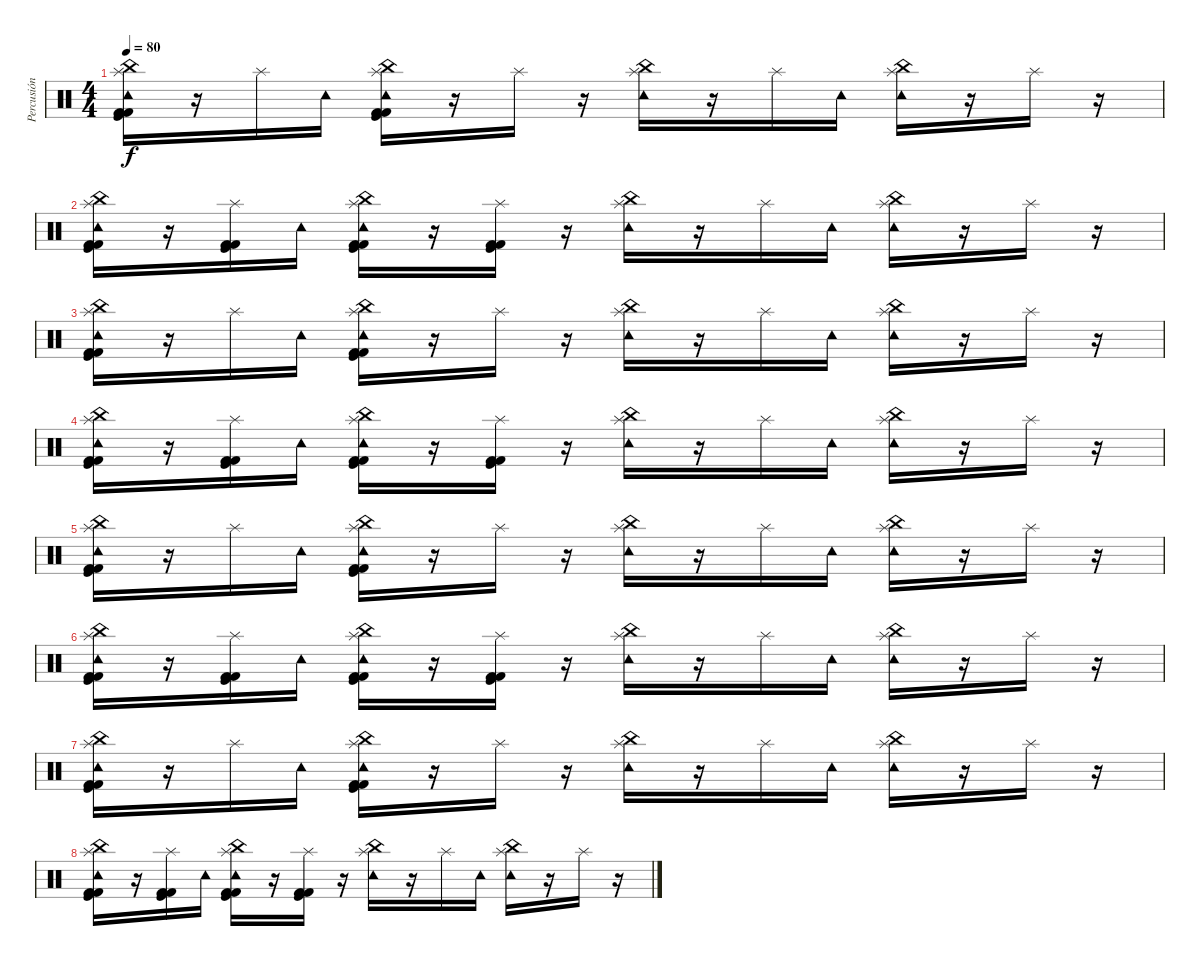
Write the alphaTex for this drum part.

\track ("Percusión" "Percusión") {instrument percussion}
\staff {score}
\articulation defaults
\ts (4 4)
\tempo 80
\clef neutral
\ks c
("Splash (hit)" "Tambourine (hit)" "China (hit)" "Kick (hit)" "Kick (hit) 2" "Kick (hit) 2").16{dy f} r.16 "Splash (hit)".16 "Tambourine (hit)".16 ("Splash (hit)" "Tambourine (hit)" "China (hit)" "Kick (hit)" "Kick (hit) 2" "Kick (hit) 2").16 r.16 "Splash (hit)".16 r.16 ("Splash (hit)" "Tambourine (hit)" "China (hit)").16 r.16 "Splash (hit)".16 "Tambourine (hit)".16 ("Splash (hit)" "Tambourine (hit)" "China (hit)").16 r.16 "Splash (hit)".16 r.16 |
("Splash (hit)" "Tambourine (hit)" "China (hit)" "Kick (hit)" "Kick (hit) 2" "Kick (hit) 2").16 r.16 ("Splash (hit)" "Kick (hit)" "Kick (hit) 2" "Kick (hit) 2").16 "Tambourine (hit)".16 ("Splash (hit)" "Tambourine (hit)" "China (hit)" "Kick (hit)" "Kick (hit) 2" "Kick (hit) 2").16 r.16 ("Splash (hit)" "Kick (hit)" "Kick (hit) 2" "Kick (hit) 2").16 r.16 ("Splash (hit)" "Tambourine (hit)" "China (hit)").16 r.16 "Splash (hit)".16 "Tambourine (hit)".16 ("Splash (hit)" "Tambourine (hit)" "China (hit)").16 r.16 "Splash (hit)".16 r.16 |
("Splash (hit)" "Tambourine (hit)" "China (hit)" "Kick (hit)" "Kick (hit) 2" "Kick (hit) 2").16 r.16 "Splash (hit)".16 "Tambourine (hit)".16 ("Splash (hit)" "Tambourine (hit)" "China (hit)" "Kick (hit)" "Kick (hit) 2" "Kick (hit) 2").16 r.16 "Splash (hit)".16 r.16 ("Splash (hit)" "Tambourine (hit)" "China (hit)").16 r.16 "Splash (hit)".16 "Tambourine (hit)".16 ("Splash (hit)" "Tambourine (hit)" "China (hit)").16 r.16 "Splash (hit)".16 r.16 |
("Splash (hit)" "Tambourine (hit)" "China (hit)" "Kick (hit)" "Kick (hit) 2" "Kick (hit) 2").16 r.16 ("Splash (hit)" "Kick (hit)" "Kick (hit) 2" "Kick (hit) 2").16 "Tambourine (hit)".16 ("Splash (hit)" "Tambourine (hit)" "China (hit)" "Kick (hit)" "Kick (hit) 2" "Kick (hit) 2").16 r.16 ("Splash (hit)" "Kick (hit)" "Kick (hit) 2" "Kick (hit) 2").16 r.16 ("Splash (hit)" "Tambourine (hit)" "China (hit)").16 r.16 "Splash (hit)".16 "Tambourine (hit)".16 ("Splash (hit)" "Tambourine (hit)" "China (hit)").16 r.16 "Splash (hit)".16 r.16 |
("Splash (hit)" "Tambourine (hit)" "China (hit)" "Kick (hit)" "Kick (hit) 2" "Kick (hit) 2").16 r.16 "Splash (hit)".16 "Tambourine (hit)".16 ("Splash (hit)" "Tambourine (hit)" "China (hit)" "Kick (hit)" "Kick (hit) 2" "Kick (hit) 2").16 r.16 "Splash (hit)".16 r.16 ("Splash (hit)" "Tambourine (hit)" "China (hit)").16 r.16 "Splash (hit)".16 "Tambourine (hit)".16 ("Splash (hit)" "Tambourine (hit)" "China (hit)").16 r.16 "Splash (hit)".16 r.16 |
("Splash (hit)" "Tambourine (hit)" "China (hit)" "Kick (hit)" "Kick (hit) 2" "Kick (hit) 2").16 r.16 ("Splash (hit)" "Kick (hit)" "Kick (hit) 2" "Kick (hit) 2").16 "Tambourine (hit)".16 ("Splash (hit)" "Tambourine (hit)" "China (hit)" "Kick (hit)" "Kick (hit) 2" "Kick (hit) 2").16 r.16 ("Splash (hit)" "Kick (hit)" "Kick (hit) 2" "Kick (hit) 2").16 r.16 ("Splash (hit)" "Tambourine (hit)" "China (hit)").16 r.16 "Splash (hit)".16 "Tambourine (hit)".16 ("Splash (hit)" "Tambourine (hit)" "China (hit)").16 r.16 "Splash (hit)".16 r.16 |
("Splash (hit)" "Tambourine (hit)" "China (hit)" "Kick (hit)" "Kick (hit) 2" "Kick (hit) 2").16 r.16 "Splash (hit)".16 "Tambourine (hit)".16 ("Splash (hit)" "Tambourine (hit)" "China (hit)" "Kick (hit)" "Kick (hit) 2" "Kick (hit) 2").16 r.16 "Splash (hit)".16 r.16 ("Splash (hit)" "Tambourine (hit)" "China (hit)").16 r.16 "Splash (hit)".16 "Tambourine (hit)".16 ("Splash (hit)" "Tambourine (hit)" "China (hit)").16 r.16 "Splash (hit)".16 r.16 |
("Splash (hit)" "Tambourine (hit)" "China (hit)" "Kick (hit)" "Kick (hit) 2" "Kick (hit) 2").16 r.16 ("Splash (hit)" "Kick (hit)" "Kick (hit) 2" "Kick (hit) 2").16 "Tambourine (hit)".16 ("Splash (hit)" "Tambourine (hit)" "China (hit)" "Kick (hit)" "Kick (hit) 2" "Kick (hit) 2").16 r.16 ("Splash (hit)" "Kick (hit)" "Kick (hit) 2" "Kick (hit) 2").16 r.16 ("Splash (hit)" "Tambourine (hit)" "China (hit)").16 r.16 "Splash (hit)".16 "Tambourine (hit)".16 ("Splash (hit)" "Tambourine (hit)" "China (hit)").16 r.16 "Splash (hit)".16 r.16
